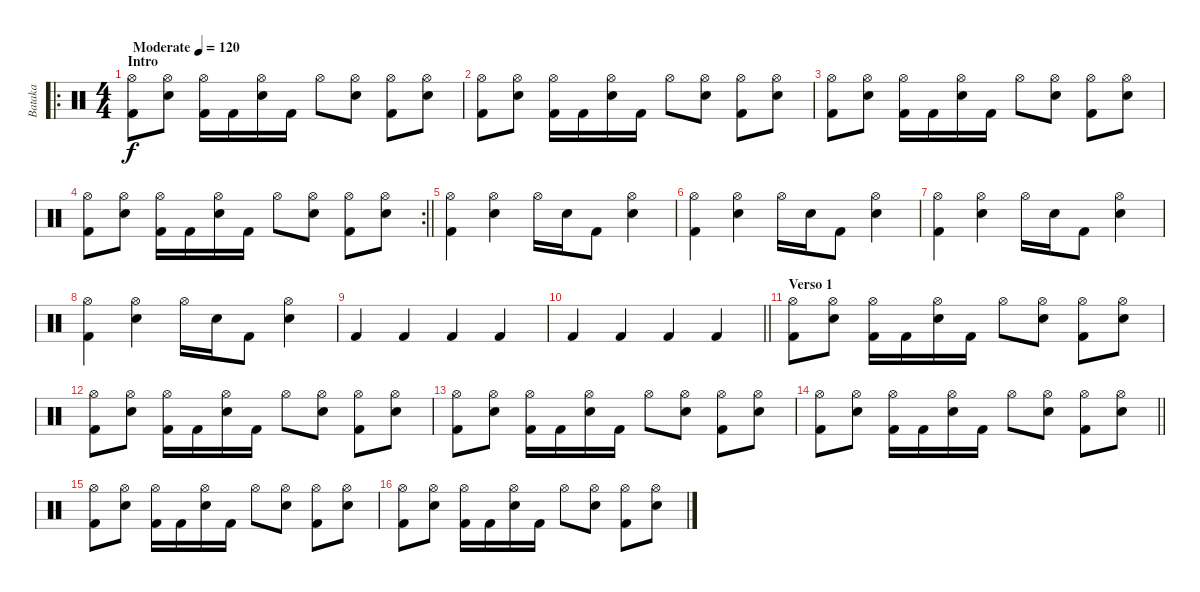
\track ("Bataka" "Bataka") {instrument percussion}
\staff {score}
\articulation defaults
\ro
\ts (4 4)
\section ("" "Intro")
\tempo (120 "Moderate")
\clef neutral
\ks c
("Hi-Hat (open)" "Kick (hit) 2").8{dy f} ("Hi-Hat (open)" "Electric Snare (hit)").8 ("Hi-Hat (open)" "Kick (hit) 2").16 "Kick (hit) 2".16 ("Hi-Hat (open)" "Electric Snare (hit)").16 "Kick (hit) 2".16 "Hi-Hat (open)".8 ("Hi-Hat (open)" "Electric Snare (hit)").8 ("Hi-Hat (open)" "Kick (hit) 2").8 ("Hi-Hat (open)" "Electric Snare (hit)").8 |
("Hi-Hat (open)" "Kick (hit) 2").8 ("Hi-Hat (open)" "Electric Snare (hit)").8 ("Hi-Hat (open)" "Kick (hit) 2").16 "Kick (hit) 2".16 ("Hi-Hat (open)" "Electric Snare (hit)").16 "Kick (hit) 2".16 "Hi-Hat (open)".8 ("Hi-Hat (open)" "Electric Snare (hit)").8 ("Hi-Hat (open)" "Kick (hit) 2").8 ("Hi-Hat (open)" "Electric Snare (hit)").8 |
("Hi-Hat (open)" "Kick (hit) 2").8 ("Hi-Hat (open)" "Electric Snare (hit)").8 ("Hi-Hat (open)" "Kick (hit) 2").16 "Kick (hit) 2".16 ("Hi-Hat (open)" "Electric Snare (hit)").16 "Kick (hit) 2".16 "Hi-Hat (open)".8 ("Hi-Hat (open)" "Electric Snare (hit)").8 ("Hi-Hat (open)" "Kick (hit) 2").8 ("Hi-Hat (open)" "Electric Snare (hit)").8 |
\rc 2
\barLineRight lightlight
("Hi-Hat (open)" "Kick (hit) 2").8 ("Hi-Hat (open)" "Electric Snare (hit)").8 ("Hi-Hat (open)" "Kick (hit) 2").16 "Kick (hit) 2".16 ("Hi-Hat (open)" "Electric Snare (hit)").16 "Kick (hit) 2".16 "Hi-Hat (open)".8 ("Hi-Hat (open)" "Electric Snare (hit)").8 ("Hi-Hat (open)" "Kick (hit) 2").8 ("Hi-Hat (open)" "Electric Snare (hit)").8 |
\section ("" "")
("Hi-Hat (open)" "Kick (hit) 2").4 ("Hi-Hat (open)" "Electric Snare (hit)").4 "Hi-Hat (open)".16 "Electric Snare (hit)".16 "Kick (hit) 2".8 ("Hi-Hat (open)" "Electric Snare (hit)").4 |
("Hi-Hat (open)" "Kick (hit) 2").4 ("Hi-Hat (open)" "Electric Snare (hit)").4 "Hi-Hat (open)".16 "Electric Snare (hit)".16 "Kick (hit) 2".8 ("Hi-Hat (open)" "Electric Snare (hit)").4 |
("Hi-Hat (open)" "Kick (hit) 2").4 ("Hi-Hat (open)" "Electric Snare (hit)").4 "Hi-Hat (open)".16 "Electric Snare (hit)".16 "Kick (hit) 2".8 ("Hi-Hat (open)" "Electric Snare (hit)").4 |
("Hi-Hat (open)" "Kick (hit) 2").4 ("Hi-Hat (open)" "Electric Snare (hit)").4 "Hi-Hat (open)".16 "Electric Snare (hit)".16 "Kick (hit) 2".8 ("Hi-Hat (open)" "Electric Snare (hit)").4 |
"Kick (hit) 2".4 "Kick (hit) 2".4 "Kick (hit) 2".4 "Kick (hit) 2".4 |
\barLineRight lightlight "Kick (hit) 2".4 "Kick (hit) 2".4 "Kick (hit) 2".4 "Kick (hit) 2".4
|
\section ("" "Verso 1")
("Hi-Hat (open)" "Kick (hit) 2").8 ("Hi-Hat (open)" "Electric Snare (hit)").8 ("Hi-Hat (open)" "Kick (hit) 2").16 "Kick (hit) 2".16 ("Hi-Hat (open)" "Electric Snare (hit)").16 "Kick (hit) 2".16 "Hi-Hat (open)".8 ("Hi-Hat (open)" "Electric Snare (hit)").8 ("Hi-Hat (open)" "Kick (hit) 2").8 ("Hi-Hat (open)" "Electric Snare (hit)").8 |
("Hi-Hat (open)" "Kick (hit) 2").8 ("Hi-Hat (open)" "Electric Snare (hit)").8 ("Hi-Hat (open)" "Kick (hit) 2").16 "Kick (hit) 2".16 ("Hi-Hat (open)" "Electric Snare (hit)").16 "Kick (hit) 2".16 "Hi-Hat (open)".8 ("Hi-Hat (open)" "Electric Snare (hit)").8 ("Hi-Hat (open)" "Kick (hit) 2").8 ("Hi-Hat (open)" "Electric Snare (hit)").8 |
("Hi-Hat (open)" "Kick (hit) 2").8 ("Hi-Hat (open)" "Electric Snare (hit)").8 ("Hi-Hat (open)" "Kick (hit) 2").16 "Kick (hit) 2".16 ("Hi-Hat (open)" "Electric Snare (hit)").16 "Kick (hit) 2".16 "Hi-Hat (open)".8 ("Hi-Hat (open)" "Electric Snare (hit)").8 ("Hi-Hat (open)" "Kick (hit) 2").8 ("Hi-Hat (open)" "Electric Snare (hit)").8 |
\barLineRight lightlight
("Hi-Hat (open)" "Kick (hit) 2").8 ("Hi-Hat (open)" "Electric Snare (hit)").8 ("Hi-Hat (open)" "Kick (hit) 2").16 "Kick (hit) 2".16 ("Hi-Hat (open)" "Electric Snare (hit)").16 "Kick (hit) 2".16 "Hi-Hat (open)".8 ("Hi-Hat (open)" "Electric Snare (hit)").8 ("Hi-Hat (open)" "Kick (hit) 2").8 ("Hi-Hat (open)" "Electric Snare (hit)").8 |
\section ("" "")
("Hi-Hat (open)" "Kick (hit) 2").8 ("Hi-Hat (open)" "Electric Snare (hit)").8 ("Hi-Hat (open)" "Kick (hit) 2").16 "Kick (hit) 2".16 ("Hi-Hat (open)" "Electric Snare (hit)").16 "Kick (hit) 2".16 "Hi-Hat (open)".8 ("Hi-Hat (open)" "Electric Snare (hit)").8 ("Hi-Hat (open)" "Kick (hit) 2").8 ("Hi-Hat (open)" "Electric Snare (hit)").8 |
("Hi-Hat (open)" "Kick (hit) 2").8 ("Hi-Hat (open)" "Electric Snare (hit)").8 ("Hi-Hat (open)" "Kick (hit) 2").16 "Kick (hit) 2".16 ("Hi-Hat (open)" "Electric Snare (hit)").16 "Kick (hit) 2".16 "Hi-Hat (open)".8 ("Hi-Hat (open)" "Electric Snare (hit)").8 ("Hi-Hat (open)" "Kick (hit) 2").8 ("Hi-Hat (open)" "Electric Snare (hit)").8
